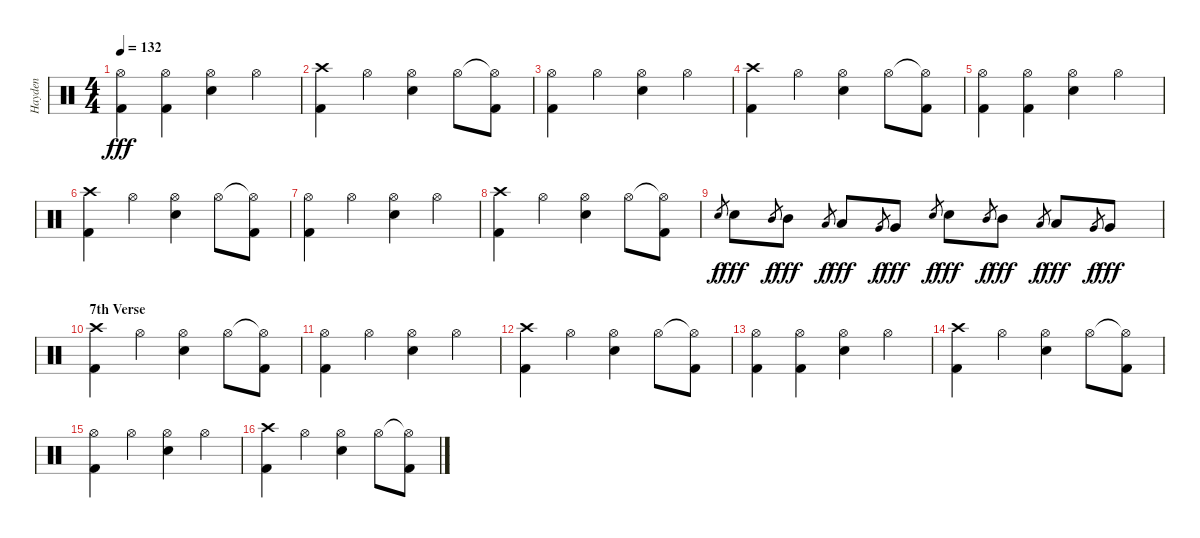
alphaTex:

\track ("Hayden" "Hayden") {instrument percussion}
\staff {score}
\articulation defaults
\ts (4 4)
\tempo 132
\clef neutral
\ks c
("Hi-Hat (open)" "Kick (hit) 2").4{dy fff} ("Hi-Hat (open)" "Kick (hit) 2").4 ("Hi-Hat (open)" "Electric Snare (hit)").4 "Hi-Hat (open)".4 |
("Crash high (hit)" "Kick (hit) 2").4 "Hi-Hat (open)".4 ("Hi-Hat (open)" "Electric Snare (hit)").4 "Hi-Hat (open)".8 ("Hi-Hat (open)"{t} "Kick (hit) 2").8 |
("Hi-Hat (open)" "Kick (hit) 2").4 "Hi-Hat (open)".4 ("Hi-Hat (open)" "Electric Snare (hit)").4 "Hi-Hat (open)".4 |
("Crash high (hit)" "Kick (hit) 2").4 "Hi-Hat (open)".4 ("Hi-Hat (open)" "Electric Snare (hit)").4 "Hi-Hat (open)".8 ("Hi-Hat (open)"{t} "Kick (hit) 2").8 |
("Hi-Hat (open)" "Kick (hit) 2").4 ("Hi-Hat (open)" "Kick (hit) 2").4 ("Hi-Hat (open)" "Electric Snare (hit)").4 "Hi-Hat (open)".4 |
("Crash high (hit)" "Kick (hit) 2").4 "Hi-Hat (open)".4 ("Hi-Hat (open)" "Electric Snare (hit)").4 "Hi-Hat (open)".8 ("Hi-Hat (open)"{t} "Kick (hit) 2").8 |
("Hi-Hat (open)" "Kick (hit) 2").4 "Hi-Hat (open)".4 ("Hi-Hat (open)" "Electric Snare (hit)").4 "Hi-Hat (open)".4 |
("Crash high (hit)" "Kick (hit) 2").4 "Hi-Hat (open)".4 ("Hi-Hat (open)" "Electric Snare (hit)").4 "Hi-Hat (open)".8 ("Hi-Hat (open)"{t} "Kick (hit) 2").8 |
"Electric Snare (hit)".8{gr dy f} "Electric Snare (hit)".8{dy fff} "Mid Tom (hit)".8{gr dy f} "Mid Tom (hit)".8{dy fff} "Low Tom (hit)".8{gr dy f} "Low Tom (hit)".8{dy fff} "Very Low Tom (hit)".8{gr dy f} "Very Low Tom (hit)".8{dy fff} "Electric Snare (hit)".8{gr dy f} "Electric Snare (hit)".8{dy fff} "Mid Tom (hit)".8{gr dy f} "Mid Tom (hit)".8{dy fff} "Low Tom (hit)".8{gr dy f} "Low Tom (hit)".8{dy fff} "Very Low Tom (hit)".8{gr dy f} "Very Low Tom (hit)".8{dy fff} |
\section ("" "7th Verse")
("Crash high (hit)" "Kick (hit) 2").4 "Hi-Hat (open)".4 ("Hi-Hat (open)" "Electric Snare (hit)").4 "Hi-Hat (open)".8 ("Hi-Hat (open)"{t} "Kick (hit) 2").8 |
("Hi-Hat (open)" "Kick (hit) 2").4 "Hi-Hat (open)".4 ("Hi-Hat (open)" "Electric Snare (hit)").4 "Hi-Hat (open)".4 |
("Crash high (hit)" "Kick (hit) 2").4 "Hi-Hat (open)".4 ("Hi-Hat (open)" "Electric Snare (hit)").4 "Hi-Hat (open)".8 ("Hi-Hat (open)"{t} "Kick (hit) 2").8 |
("Hi-Hat (open)" "Kick (hit) 2").4 ("Hi-Hat (open)" "Kick (hit) 2").4 ("Hi-Hat (open)" "Electric Snare (hit)").4 "Hi-Hat (open)".4 |
("Crash high (hit)" "Kick (hit) 2").4 "Hi-Hat (open)".4 ("Hi-Hat (open)" "Electric Snare (hit)").4 "Hi-Hat (open)".8 ("Hi-Hat (open)"{t} "Kick (hit) 2").8 |
("Hi-Hat (open)" "Kick (hit) 2").4 "Hi-Hat (open)".4 ("Hi-Hat (open)" "Electric Snare (hit)").4 "Hi-Hat (open)".4 |
("Crash high (hit)" "Kick (hit) 2").4 "Hi-Hat (open)".4 ("Hi-Hat (open)" "Electric Snare (hit)").4 "Hi-Hat (open)".8 ("Hi-Hat (open)"{t} "Kick (hit) 2").8
